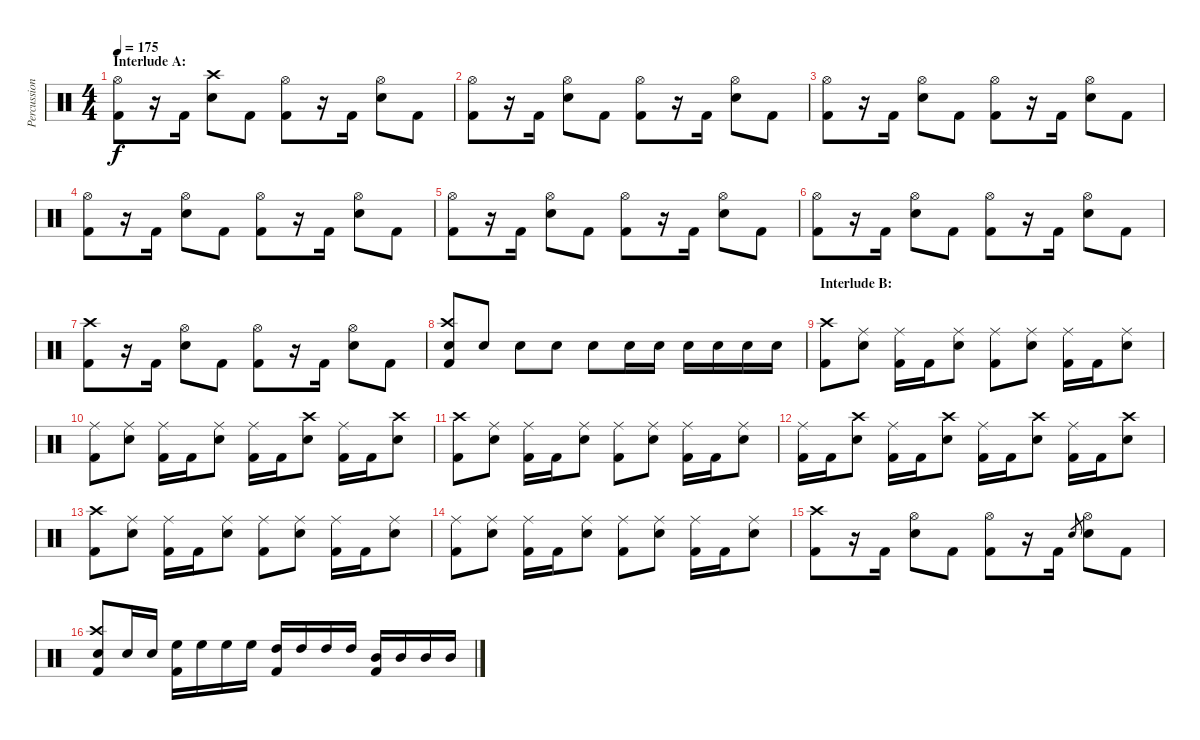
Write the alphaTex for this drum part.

\track ("Percussion" "Percussion") {instrument percussion}
\staff {score}
\articulation defaults
\ts (4 4)
\section ("" "Interlude A:")
\tempo 175
\clef neutral
\ks c
("Hi-Hat (open)" "Kick (hit) 2").8{dy f} r.16 "Kick (hit) 2".16 ("Crash high (hit)" "Electric Snare (hit)").8 "Kick (hit) 2".8 ("Hi-Hat (open)" "Kick (hit) 2").8 r.16 "Kick (hit) 2".16 ("Hi-Hat (open)" "Electric Snare (hit)").8 "Kick (hit) 2".8 |
("Hi-Hat (open)" "Kick (hit) 2").8 r.16 "Kick (hit) 2".16 ("Hi-Hat (open)" "Electric Snare (hit)").8 "Kick (hit) 2".8 ("Hi-Hat (open)" "Kick (hit) 2").8 r.16 "Kick (hit) 2".16 ("Hi-Hat (open)" "Electric Snare (hit)").8 "Kick (hit) 2".8 |
("Hi-Hat (open)" "Kick (hit) 2").8 r.16 "Kick (hit) 2".16 ("Hi-Hat (open)" "Electric Snare (hit)").8 "Kick (hit) 2".8 ("Hi-Hat (open)" "Kick (hit) 2").8 r.16 "Kick (hit) 2".16 ("Hi-Hat (open)" "Electric Snare (hit)").8 "Kick (hit) 2".8 |
("Hi-Hat (open)" "Kick (hit) 2").8 r.16 "Kick (hit) 2".16 ("Hi-Hat (open)" "Electric Snare (hit)").8 "Kick (hit) 2".8 ("Hi-Hat (open)" "Kick (hit) 2").8 r.16 "Kick (hit) 2".16 ("Hi-Hat (open)" "Electric Snare (hit)").8 "Kick (hit) 2".8 |
("Hi-Hat (open)" "Kick (hit) 2").8 r.16 "Kick (hit) 2".16 ("Hi-Hat (open)" "Electric Snare (hit)").8 "Kick (hit) 2".8 ("Hi-Hat (open)" "Kick (hit) 2").8 r.16 "Kick (hit) 2".16 ("Hi-Hat (open)" "Electric Snare (hit)").8 "Kick (hit) 2".8 |
("Hi-Hat (open)" "Kick (hit) 2").8 r.16 "Kick (hit) 2".16 ("Hi-Hat (open)" "Electric Snare (hit)").8 "Kick (hit) 2".8 ("Hi-Hat (open)" "Kick (hit) 2").8 r.16 "Kick (hit) 2".16 ("Hi-Hat (open)" "Electric Snare (hit)").8 "Kick (hit) 2".8 |
("Crash high (hit)" "Kick (hit) 2").8 r.16 "Kick (hit) 2".16 ("Hi-Hat (open)" "Electric Snare (hit)").8 "Kick (hit) 2".8 ("Hi-Hat (open)" "Kick (hit) 2").8 r.16 "Kick (hit) 2".16 ("Hi-Hat (open)" "Electric Snare (hit)").8 "Kick (hit) 2".8 |
("Crash high (hit)" "Electric Snare (hit)" "Kick (hit) 2").8 "Electric Snare (hit)".8 "Electric Snare (hit)".8 "Electric Snare (hit)".8 "Electric Snare (hit)".8 "Electric Snare (hit)".16 "Electric Snare (hit)".16 "Electric Snare (hit)".16 "Electric Snare (hit)".16 "Electric Snare (hit)".16 "Electric Snare (hit)".16 |
\section ("" "Interlude B:")
("Crash high (hit)" "Kick (hit) 2").8 ("Ride (middle)" "Electric Snare (hit)").8 ("Ride (middle)" "Kick (hit) 2").16 "Kick (hit) 2".16 ("Ride (middle)" "Electric Snare (hit)").8 ("Ride (middle)" "Kick (hit) 2").8 ("Ride (middle)" "Electric Snare (hit)").8 ("Ride (middle)" "Kick (hit) 2").16 "Kick (hit) 2".16 ("Ride (middle)" "Electric Snare (hit)").8 |
("Ride (middle)" "Kick (hit) 2").8 ("Ride (middle)" "Electric Snare (hit)").8 ("Ride (middle)" "Kick (hit) 2").16 "Kick (hit) 2".16 ("Ride (middle)" "Electric Snare (hit)").8 ("Ride (middle)" "Kick (hit) 2").16 "Kick (hit) 2".16 ("Crash high (hit)" "Electric Snare (hit)").8 ("Ride (middle)" "Kick (hit) 2").16 "Kick (hit) 2".16 ("Crash high (hit)" "Electric Snare (hit)").8 |
("Crash high (hit)" "Kick (hit) 2").8 ("Ride (middle)" "Electric Snare (hit)").8 ("Ride (middle)" "Kick (hit) 2").16 "Kick (hit) 2".16 ("Ride (middle)" "Electric Snare (hit)").8 ("Ride (middle)" "Kick (hit) 2").8 ("Ride (middle)" "Electric Snare (hit)").8 ("Ride (middle)" "Kick (hit) 2").16 "Kick (hit) 2".16 ("Ride (middle)" "Electric Snare (hit)").8 |
("Ride (middle)" "Kick (hit) 2").16 "Kick (hit) 2".16 ("Crash high (hit)" "Electric Snare (hit)").8 ("Ride (middle)" "Kick (hit) 2").16 "Kick (hit) 2".16 ("Crash high (hit)" "Electric Snare (hit)").8 ("Ride (middle)" "Kick (hit) 2").16 "Kick (hit) 2".16 ("Crash high (hit)" "Electric Snare (hit)").8 ("Ride (middle)" "Kick (hit) 2").16 "Kick (hit) 2".16 ("Crash high (hit)" "Electric Snare (hit)").8 |
("Crash high (hit)" "Kick (hit) 2").8 ("Ride (middle)" "Electric Snare (hit)").8 ("Ride (middle)" "Kick (hit) 2").16 "Kick (hit) 2".16 ("Ride (middle)" "Electric Snare (hit)").8 ("Ride (middle)" "Kick (hit) 2").8 ("Ride (middle)" "Electric Snare (hit)").8 ("Ride (middle)" "Kick (hit) 2").16 "Kick (hit) 2".16 ("Ride (middle)" "Electric Snare (hit)").8 |
("Ride (middle)" "Kick (hit) 2").8 ("Ride (middle)" "Electric Snare (hit)").8 ("Ride (middle)" "Kick (hit) 2").16 "Kick (hit) 2".16 ("Ride (middle)" "Electric Snare (hit)").8 ("Ride (middle)" "Kick (hit) 2").8 ("Ride (middle)" "Electric Snare (hit)").8 ("Ride (middle)" "Kick (hit) 2").16 "Kick (hit) 2".16 ("Ride (middle)" "Electric Snare (hit)").8 |
("Crash high (hit)" "Kick (hit) 2").8 r.16 "Kick (hit) 2".16 ("Hi-Hat (open)" "Electric Snare (hit)").8 "Kick (hit) 2".8 ("Hi-Hat (open)" "Kick (hit) 2").8 r.16 "Kick (hit) 2".16 "Electric Snare (hit)".8{gr} ("Hi-Hat (open)" "Electric Snare (hit)").8 "Kick (hit) 2".8 |
("Crash high (hit)" "Electric Snare (hit)" "Kick (hit) 2").8 "Electric Snare (hit)".16 "Electric Snare (hit)".16 ("High Floor Tom (hit)" "Kick (hit) 2").16 "High Floor Tom (hit)".16 "High Floor Tom (hit)".16 "High Floor Tom (hit)".16 ("High Tom (hit)" "Kick (hit) 2").16 "High Tom (hit)".16 "High Tom (hit)".16 "High Tom (hit)".16 ("Mid Tom (hit)" "Kick (hit) 2").16 "Mid Tom (hit)".16 "Mid Tom (hit)".16 "Mid Tom (hit)".16
